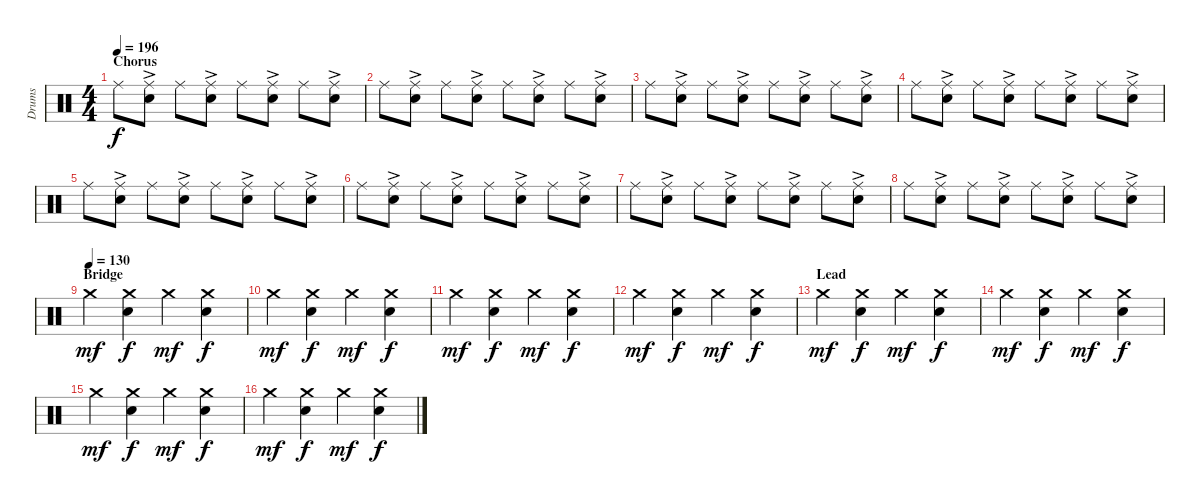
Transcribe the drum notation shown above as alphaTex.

\track ("Drums" "Drums") {instrument percussion}
\staff {score}
\articulation defaults
\ts (4 4)
\section ("" "Chorus")
\tempo 196
\clef neutral
\ks c "Ride (middle)".8{dy f}
("Ride (middle)" "Electric Snare (hit)"{ac}).8 "Ride (middle)".8 ("Ride (middle)" "Electric Snare (hit)"{ac}).8 "Ride (middle)".8 ("Ride (middle)" "Electric Snare (hit)"{ac}).8 "Ride (middle)".8 ("Ride (middle)" "Electric Snare (hit)"{ac}).8 |
"Ride (middle)".8 ("Ride (middle)" "Electric Snare (hit)"{ac}).8 "Ride (middle)".8 ("Ride (middle)" "Electric Snare (hit)"{ac}).8 "Ride (middle)".8 ("Ride (middle)" "Electric Snare (hit)"{ac}).8 "Ride (middle)".8 ("Ride (middle)" "Electric Snare (hit)"{ac}).8 |
"Ride (middle)".8 ("Ride (middle)" "Electric Snare (hit)"{ac}).8 "Ride (middle)".8 ("Ride (middle)" "Electric Snare (hit)"{ac}).8 "Ride (middle)".8 ("Ride (middle)" "Electric Snare (hit)"{ac}).8 "Ride (middle)".8 ("Ride (middle)" "Electric Snare (hit)"{ac}).8 |
"Ride (middle)".8 ("Ride (middle)" "Electric Snare (hit)"{ac}).8 "Ride (middle)".8 ("Ride (middle)" "Electric Snare (hit)"{ac}).8 "Ride (middle)".8 ("Ride (middle)" "Electric Snare (hit)"{ac}).8 "Ride (middle)".8 ("Ride (middle)" "Electric Snare (hit)"{ac}).8 |
"Ride (middle)".8 ("Ride (middle)" "Electric Snare (hit)"{ac}).8 "Ride (middle)".8 ("Ride (middle)" "Electric Snare (hit)"{ac}).8 "Ride (middle)".8 ("Ride (middle)" "Electric Snare (hit)"{ac}).8 "Ride (middle)".8 ("Ride (middle)" "Electric Snare (hit)"{ac}).8 |
"Ride (middle)".8 ("Ride (middle)" "Electric Snare (hit)"{ac}).8 "Ride (middle)".8 ("Ride (middle)" "Electric Snare (hit)"{ac}).8 "Ride (middle)".8 ("Ride (middle)" "Electric Snare (hit)"{ac}).8 "Ride (middle)".8 ("Ride (middle)" "Electric Snare (hit)"{ac}).8 |
"Ride (middle)".8 ("Ride (middle)" "Electric Snare (hit)"{ac}).8 "Ride (middle)".8 ("Ride (middle)" "Electric Snare (hit)"{ac}).8 "Ride (middle)".8 ("Ride (middle)" "Electric Snare (hit)"{ac}).8 "Ride (middle)".8 ("Ride (middle)" "Electric Snare (hit)"{ac}).8 |
"Ride (middle)".8 ("Ride (middle)" "Electric Snare (hit)"{ac}).8 "Ride (middle)".8 ("Ride (middle)" "Electric Snare (hit)"{ac}).8 "Ride (middle)".8 ("Ride (middle)" "Electric Snare (hit)"{ac}).8 "Ride (middle)".8 ("Ride (middle)" "Electric Snare (hit)"{ac}).8 |
\section ("" "Bridge")
\tempo (130)
"Crash medium (hit)".4{dy mf} ("Crash medium (hit)" "Electric Snare (hit)").4{dy f} "Crash medium (hit)".4{dy mf} ("Crash medium (hit)" "Electric Snare (hit)").4{dy f} |
"Crash medium (hit)".4{dy mf} ("Crash medium (hit)" "Electric Snare (hit)").4{dy f} "Crash medium (hit)".4{dy mf} ("Crash medium (hit)" "Electric Snare (hit)").4{dy f} |
"Crash medium (hit)".4{dy mf} ("Crash medium (hit)" "Electric Snare (hit)").4{dy f} "Crash medium (hit)".4{dy mf} ("Crash medium (hit)" "Electric Snare (hit)").4{dy f} |
"Crash medium (hit)".4{dy mf} ("Crash medium (hit)" "Electric Snare (hit)").4{dy f} "Crash medium (hit)".4{dy mf} ("Crash medium (hit)" "Electric Snare (hit)").4{dy f} |
\section ("" "Lead")
"Crash medium (hit)".4{dy mf} ("Crash medium (hit)" "Electric Snare (hit)").4{dy f} "Crash medium (hit)".4{dy mf} ("Crash medium (hit)" "Electric Snare (hit)").4{dy f} |
"Crash medium (hit)".4{dy mf} ("Crash medium (hit)" "Electric Snare (hit)").4{dy f} "Crash medium (hit)".4{dy mf} ("Crash medium (hit)" "Electric Snare (hit)").4{dy f} |
"Crash medium (hit)".4{dy mf} ("Crash medium (hit)" "Electric Snare (hit)").4{dy f} "Crash medium (hit)".4{dy mf} ("Crash medium (hit)" "Electric Snare (hit)").4{dy f} |
"Crash medium (hit)".4{dy mf} ("Crash medium (hit)" "Electric Snare (hit)").4{dy f} "Crash medium (hit)".4{dy mf} ("Crash medium (hit)" "Electric Snare (hit)").4{dy f}
